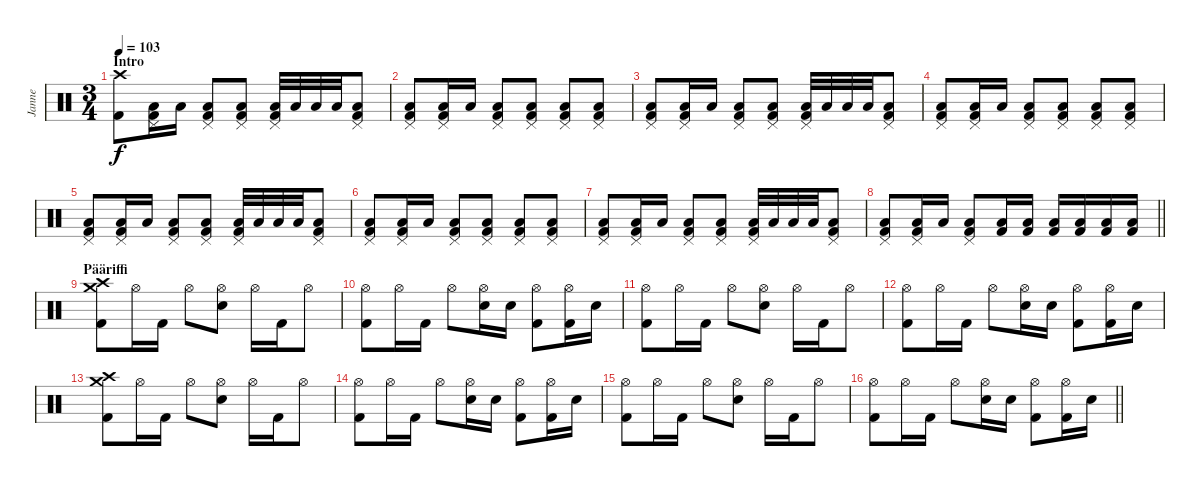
\track ("Janne" "Janne") {instrument percussion}
\staff {score}
\articulation defaults
\ts (3 4)
\section ("" "Intro")
\tempo 103
\clef neutral
\ks c
("Crash high (hit)" "Kick (hit) 2").8{dy f} ("Pedal Hi-Hat (hit)" "Low Floor Tom (hit)" "Kick (hit) 2").16 "Low Tom (hit)".16 ("Pedal Hi-Hat (hit)" "Low Floor Tom (hit)" "Kick (hit) 2").8 ("Pedal Hi-Hat (hit)" "Low Floor Tom (hit)" "Kick (hit) 2").8 ("Pedal Hi-Hat (hit)" "Low Floor Tom (hit)" "Kick (hit) 2").32 "Low Floor Tom (hit)".32 "Low Floor Tom (hit)".32 "Low Floor Tom (hit)".32 ("Pedal Hi-Hat (hit)" "Low Floor Tom (hit)" "Kick (hit) 2").8 |
("Pedal Hi-Hat (hit)" "Low Floor Tom (hit)" "Kick (hit) 2").8 ("Pedal Hi-Hat (hit)" "Low Floor Tom (hit)" "Kick (hit) 2").16 "Low Tom (hit)".16 ("Pedal Hi-Hat (hit)" "Low Floor Tom (hit)" "Kick (hit) 2").8 ("Pedal Hi-Hat (hit)" "Low Floor Tom (hit)" "Kick (hit) 2").8 ("Pedal Hi-Hat (hit)" "Low Floor Tom (hit)" "Kick (hit) 2").8 ("Pedal Hi-Hat (hit)" "Low Floor Tom (hit)" "Kick (hit) 2").8 |
("Pedal Hi-Hat (hit)" "Low Floor Tom (hit)" "Kick (hit) 2").8 ("Pedal Hi-Hat (hit)" "Low Floor Tom (hit)" "Kick (hit) 2").16 "Low Tom (hit)".16 ("Pedal Hi-Hat (hit)" "Low Floor Tom (hit)" "Kick (hit) 2").8 ("Pedal Hi-Hat (hit)" "Low Floor Tom (hit)" "Kick (hit) 2").8 ("Pedal Hi-Hat (hit)" "Low Floor Tom (hit)" "Kick (hit) 2").32 "Low Floor Tom (hit)".32 "Low Floor Tom (hit)".32 "Low Floor Tom (hit)".32 ("Pedal Hi-Hat (hit)" "Low Floor Tom (hit)" "Kick (hit) 2").8 |
("Pedal Hi-Hat (hit)" "Low Floor Tom (hit)" "Kick (hit) 2").8 ("Pedal Hi-Hat (hit)" "Low Floor Tom (hit)" "Kick (hit) 2").16 "Low Tom (hit)".16 ("Pedal Hi-Hat (hit)" "Low Floor Tom (hit)" "Kick (hit) 2").8 ("Pedal Hi-Hat (hit)" "Low Floor Tom (hit)" "Kick (hit) 2").8 ("Pedal Hi-Hat (hit)" "Low Floor Tom (hit)" "Kick (hit) 2").8 ("Pedal Hi-Hat (hit)" "Low Floor Tom (hit)" "Kick (hit) 2").8 |
("Pedal Hi-Hat (hit)" "Low Floor Tom (hit)" "Kick (hit) 2").8 ("Pedal Hi-Hat (hit)" "Low Floor Tom (hit)" "Kick (hit) 2").16 "Low Tom (hit)".16 ("Pedal Hi-Hat (hit)" "Low Floor Tom (hit)" "Kick (hit) 2").8 ("Pedal Hi-Hat (hit)" "Low Floor Tom (hit)" "Kick (hit) 2").8 ("Pedal Hi-Hat (hit)" "Low Floor Tom (hit)" "Kick (hit) 2").32 "Low Floor Tom (hit)".32 "Low Floor Tom (hit)".32 "Low Floor Tom (hit)".32 ("Pedal Hi-Hat (hit)" "Low Floor Tom (hit)" "Kick (hit) 2").8 |
("Pedal Hi-Hat (hit)" "Low Floor Tom (hit)" "Kick (hit) 2").8 ("Pedal Hi-Hat (hit)" "Low Floor Tom (hit)" "Kick (hit) 2").16 "Low Tom (hit)".16 ("Pedal Hi-Hat (hit)" "Low Floor Tom (hit)" "Kick (hit) 2").8 ("Pedal Hi-Hat (hit)" "Low Floor Tom (hit)" "Kick (hit) 2").8 ("Pedal Hi-Hat (hit)" "Low Floor Tom (hit)" "Kick (hit) 2").8 ("Pedal Hi-Hat (hit)" "Low Floor Tom (hit)" "Kick (hit) 2").8 |
("Pedal Hi-Hat (hit)" "Low Floor Tom (hit)" "Kick (hit) 2").8 ("Pedal Hi-Hat (hit)" "Low Floor Tom (hit)" "Kick (hit) 2").16 "Low Tom (hit)".16 ("Pedal Hi-Hat (hit)" "Low Floor Tom (hit)" "Kick (hit) 2").8 ("Pedal Hi-Hat (hit)" "Low Floor Tom (hit)" "Kick (hit) 2").8 ("Pedal Hi-Hat (hit)" "Low Floor Tom (hit)" "Kick (hit) 2").32 "Low Floor Tom (hit)".32 "Low Floor Tom (hit)".32 "Low Floor Tom (hit)".32 ("Pedal Hi-Hat (hit)" "Low Floor Tom (hit)" "Kick (hit) 2").8 |
\barLineRight lightlight
("Pedal Hi-Hat (hit)" "Low Floor Tom (hit)" "Kick (hit) 2").8 ("Pedal Hi-Hat (hit)" "Low Floor Tom (hit)" "Kick (hit) 2").16 "Low Tom (hit)".16 ("Pedal Hi-Hat (hit)" "Low Floor Tom (hit)" "Kick (hit) 2").8 ("Low Floor Tom (hit)" "Kick (hit) 2").16 ("Low Floor Tom (hit)" "Kick (hit) 2").16 ("Low Floor Tom (hit)" "Kick (hit) 2").16 ("Low Floor Tom (hit)" "Kick (hit) 2").16 ("Low Floor Tom (hit)" "Kick (hit) 2").16 ("Low Floor Tom (hit)" "Kick (hit) 2").16 |
\section ("" "Pääriffi")
("Crash medium (hit)" "Crash high (hit)" "Kick (hit) 2").8 "Hi-Hat (open)".16 "Kick (hit) 2".16 "Hi-Hat (open)".8 ("Hi-Hat (open)" "Electric Snare (hit)").8 "Hi-Hat (open)".16 "Kick (hit) 2".16 "Hi-Hat (open)".8 |
("Hi-Hat (open)" "Kick (hit) 2").8 "Hi-Hat (open)".16 "Kick (hit) 2".16 "Hi-Hat (open)".8 ("Hi-Hat (open)" "Electric Snare (hit)").16 "Electric Snare (hit)".16 ("Hi-Hat (open)" "Kick (hit) 2").8 ("Hi-Hat (open)" "Kick (hit) 2").16 "Electric Snare (hit)".16 |
("Hi-Hat (open)" "Kick (hit) 2").8 "Hi-Hat (open)".16 "Kick (hit) 2".16 "Hi-Hat (open)".8 ("Hi-Hat (open)" "Electric Snare (hit)").8 "Hi-Hat (open)".16 "Kick (hit) 2".16 "Hi-Hat (open)".8 |
("Hi-Hat (open)" "Kick (hit) 2").8 "Hi-Hat (open)".16 "Kick (hit) 2".16 "Hi-Hat (open)".8 ("Hi-Hat (open)" "Electric Snare (hit)").16 "Electric Snare (hit)".16 ("Hi-Hat (open)" "Kick (hit) 2").8 ("Hi-Hat (open)" "Kick (hit) 2").16 "Electric Snare (hit)".16 |
("Crash medium (hit)" "Crash high (hit)" "Kick (hit) 2").8 "Hi-Hat (open)".16 "Kick (hit) 2".16 "Hi-Hat (open)".8 ("Hi-Hat (open)" "Electric Snare (hit)").8 "Hi-Hat (open)".16 "Kick (hit) 2".16 "Hi-Hat (open)".8 |
("Hi-Hat (open)" "Kick (hit) 2").8 "Hi-Hat (open)".16 "Kick (hit) 2".16 "Hi-Hat (open)".8 ("Hi-Hat (open)" "Electric Snare (hit)").16 "Electric Snare (hit)".16 ("Hi-Hat (open)" "Kick (hit) 2").8 ("Hi-Hat (open)" "Kick (hit) 2").16 "Electric Snare (hit)".16 |
("Hi-Hat (open)" "Kick (hit) 2").8 "Hi-Hat (open)".16 "Kick (hit) 2".16 "Hi-Hat (open)".8 ("Hi-Hat (open)" "Electric Snare (hit)").8 "Hi-Hat (open)".16 "Kick (hit) 2".16 "Hi-Hat (open)".8 |
\barLineRight lightlight
("Hi-Hat (open)" "Kick (hit) 2").8 "Hi-Hat (open)".16 "Kick (hit) 2".16 "Hi-Hat (open)".8 ("Hi-Hat (open)" "Electric Snare (hit)").16 "Electric Snare (hit)".16 ("Hi-Hat (open)" "Kick (hit) 2").8 ("Hi-Hat (open)" "Kick (hit) 2").16 "Electric Snare (hit)".16
